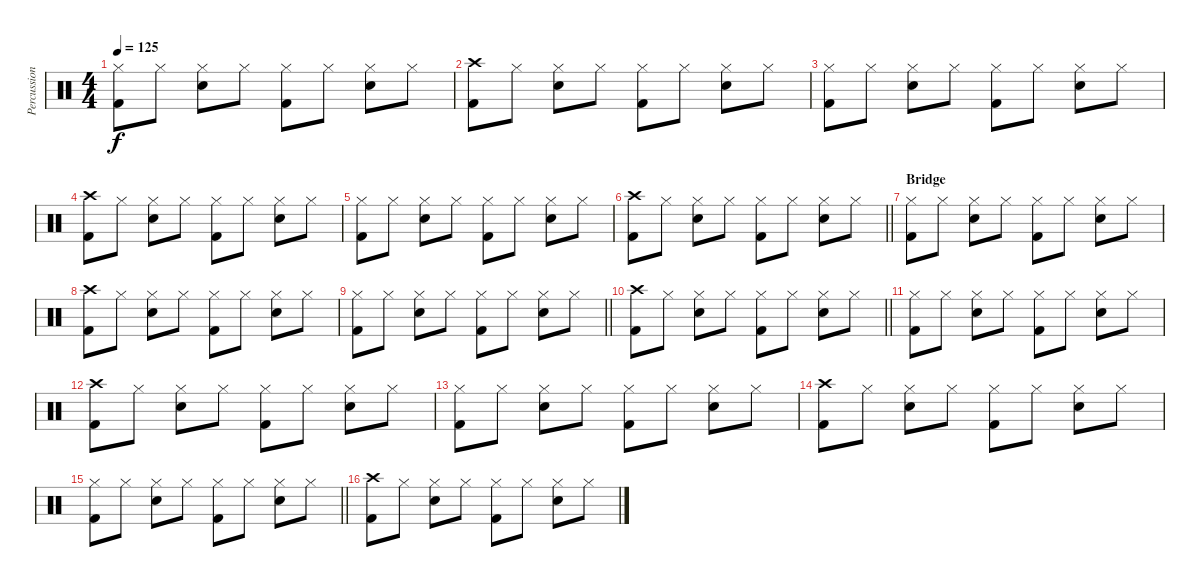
\track ("Percussion" "Percussion") {instrument percussion}
\staff {score}
\articulation defaults
\ts (4 4)
\tempo 125
\clef neutral
\ks c
("Hi-Hat (closed)" "Kick (hit) 2").8{dy f} "Hi-Hat (closed)".8 ("Hi-Hat (closed)" "Snare (hit) 2").8 "Hi-Hat (closed)".8 ("Hi-Hat (closed)" "Kick (hit) 2").8 "Hi-Hat (closed)".8 ("Hi-Hat (closed)" "Snare (hit) 2").8 "Hi-Hat (closed)".8 |
("Crash high (hit)" "Kick (hit) 2").8 "Hi-Hat (closed)".8 ("Hi-Hat (closed)" "Snare (hit) 2").8 "Hi-Hat (closed)".8 ("Hi-Hat (closed)" "Kick (hit) 2").8 "Hi-Hat (closed)".8 ("Hi-Hat (closed)" "Snare (hit) 2").8 "Hi-Hat (closed)".8 |
("Hi-Hat (closed)" "Kick (hit) 2").8 "Hi-Hat (closed)".8 ("Hi-Hat (closed)" "Snare (hit) 2").8 "Hi-Hat (closed)".8 ("Hi-Hat (closed)" "Kick (hit) 2").8 "Hi-Hat (closed)".8 ("Hi-Hat (closed)" "Snare (hit) 2").8 "Hi-Hat (closed)".8 |
("Crash high (hit)" "Kick (hit) 2").8 "Hi-Hat (closed)".8 ("Hi-Hat (closed)" "Snare (hit) 2").8 "Hi-Hat (closed)".8 ("Hi-Hat (closed)" "Kick (hit) 2").8 "Hi-Hat (closed)".8 ("Hi-Hat (closed)" "Snare (hit) 2").8 "Hi-Hat (closed)".8 |
("Hi-Hat (closed)" "Kick (hit) 2").8 "Hi-Hat (closed)".8 ("Hi-Hat (closed)" "Snare (hit) 2").8 "Hi-Hat (closed)".8 ("Hi-Hat (closed)" "Kick (hit) 2").8 "Hi-Hat (closed)".8 ("Hi-Hat (closed)" "Snare (hit) 2").8 "Hi-Hat (closed)".8 |
\barLineRight lightlight
("Crash high (hit)" "Kick (hit) 2").8 "Hi-Hat (closed)".8 ("Hi-Hat (closed)" "Snare (hit) 2").8 "Hi-Hat (closed)".8 ("Hi-Hat (closed)" "Kick (hit) 2").8 "Hi-Hat (closed)".8 ("Hi-Hat (closed)" "Snare (hit) 2").8 "Hi-Hat (closed)".8 |
\section ("" "Bridge")
("Hi-Hat (closed)" "Kick (hit) 2").8 "Hi-Hat (closed)".8 ("Hi-Hat (closed)" "Snare (hit) 2").8 "Hi-Hat (closed)".8 ("Hi-Hat (closed)" "Kick (hit) 2").8 "Hi-Hat (closed)".8 ("Hi-Hat (closed)" "Snare (hit) 2").8 "Hi-Hat (closed)".8 |
("Crash high (hit)" "Kick (hit) 2").8 "Hi-Hat (closed)".8 ("Hi-Hat (closed)" "Snare (hit) 2").8 "Hi-Hat (closed)".8 ("Hi-Hat (closed)" "Kick (hit) 2").8 "Hi-Hat (closed)".8 ("Hi-Hat (closed)" "Snare (hit) 2").8 "Hi-Hat (closed)".8 |
\barLineRight lightlight
("Hi-Hat (closed)" "Kick (hit) 2").8 "Hi-Hat (closed)".8 ("Hi-Hat (closed)" "Snare (hit) 2").8 "Hi-Hat (closed)".8 ("Hi-Hat (closed)" "Kick (hit) 2").8 "Hi-Hat (closed)".8 ("Hi-Hat (closed)" "Snare (hit) 2").8 "Hi-Hat (closed)".8 |
\barLineRight lightlight
("Crash high (hit)" "Kick (hit) 2").8 "Hi-Hat (closed)".8 ("Hi-Hat (closed)" "Snare (hit) 2").8 "Hi-Hat (closed)".8 ("Hi-Hat (closed)" "Kick (hit) 2").8 "Hi-Hat (closed)".8 ("Hi-Hat (closed)" "Snare (hit) 2").8 "Hi-Hat (closed)".8 |
("Hi-Hat (closed)" "Kick (hit) 2").8 "Hi-Hat (closed)".8 ("Hi-Hat (closed)" "Snare (hit) 2").8 "Hi-Hat (closed)".8 ("Hi-Hat (closed)" "Kick (hit) 2").8 "Hi-Hat (closed)".8 ("Hi-Hat (closed)" "Snare (hit) 2").8 "Hi-Hat (closed)".8 |
("Crash high (hit)" "Kick (hit) 2").8 "Hi-Hat (closed)".8 ("Hi-Hat (closed)" "Snare (hit) 2").8 "Hi-Hat (closed)".8 ("Hi-Hat (closed)" "Kick (hit) 2").8 "Hi-Hat (closed)".8 ("Hi-Hat (closed)" "Snare (hit) 2").8 "Hi-Hat (closed)".8 |
("Hi-Hat (closed)" "Kick (hit) 2").8 "Hi-Hat (closed)".8 ("Hi-Hat (closed)" "Snare (hit) 2").8 "Hi-Hat (closed)".8 ("Hi-Hat (closed)" "Kick (hit) 2").8 "Hi-Hat (closed)".8 ("Hi-Hat (closed)" "Snare (hit) 2").8 "Hi-Hat (closed)".8 |
("Crash high (hit)" "Kick (hit) 2").8 "Hi-Hat (closed)".8 ("Hi-Hat (closed)" "Snare (hit) 2").8 "Hi-Hat (closed)".8 ("Hi-Hat (closed)" "Kick (hit) 2").8 "Hi-Hat (closed)".8 ("Hi-Hat (closed)" "Snare (hit) 2").8 "Hi-Hat (closed)".8 |
\barLineRight lightlight
("Hi-Hat (closed)" "Kick (hit) 2").8 "Hi-Hat (closed)".8 ("Hi-Hat (closed)" "Snare (hit) 2").8 "Hi-Hat (closed)".8 ("Hi-Hat (closed)" "Kick (hit) 2").8 "Hi-Hat (closed)".8 ("Hi-Hat (closed)" "Snare (hit) 2").8 "Hi-Hat (closed)".8 |
("Crash high (hit)" "Kick (hit) 2").8 "Hi-Hat (closed)".8 ("Hi-Hat (closed)" "Snare (hit) 2").8 "Hi-Hat (closed)".8 ("Hi-Hat (closed)" "Kick (hit) 2").8 "Hi-Hat (closed)".8 ("Hi-Hat (closed)" "Snare (hit) 2").8 "Hi-Hat (closed)".8
